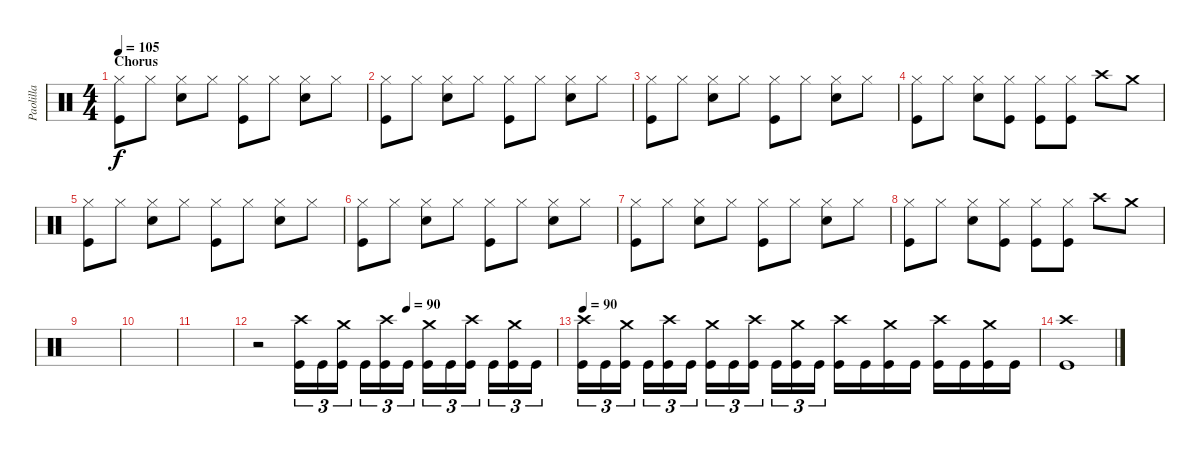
\track ("Paolilla" "Paolilla") {instrument percussion}
\staff {score}
\articulation defaults
\ts (4 4)
\section ("" "Chorus")
\tempo 105
\clef neutral
\ks c
("Hi-Hat (closed)" "Kick (hit)").8{dy f} "Hi-Hat (closed)".8 ("Hi-Hat (closed)" "Snare (hit) 2").8 "Hi-Hat (closed)".8 ("Hi-Hat (closed)" "Kick (hit)").8 "Hi-Hat (closed)".8 ("Hi-Hat (closed)" "Snare (hit) 2").8 "Hi-Hat (closed)".8 |
("Hi-Hat (closed)" "Kick (hit)").8 "Hi-Hat (closed)".8 ("Hi-Hat (closed)" "Snare (hit) 2").8 "Hi-Hat (closed)".8 ("Hi-Hat (closed)" "Kick (hit)").8 "Hi-Hat (closed)".8 ("Hi-Hat (closed)" "Snare (hit) 2").8 "Hi-Hat (closed)".8 |
("Hi-Hat (closed)" "Kick (hit)").8 "Hi-Hat (closed)".8 ("Hi-Hat (closed)" "Snare (hit) 2").8 "Hi-Hat (closed)".8 ("Hi-Hat (closed)" "Kick (hit)").8 "Hi-Hat (closed)".8 ("Hi-Hat (closed)" "Snare (hit) 2").8 "Hi-Hat (closed)".8 |
("Hi-Hat (closed)" "Kick (hit)").8 "Hi-Hat (closed)".8 ("Hi-Hat (closed)" "Snare (hit) 2").8 ("Hi-Hat (closed)" "Kick (hit)").8 ("Hi-Hat (closed)" "Kick (hit)").8 ("Hi-Hat (closed)" "Kick (hit)").8 "Crash high (hit)".8 "Crash medium (hit)".8 |
("Hi-Hat (closed)" "Kick (hit)").8 "Hi-Hat (closed)".8 ("Hi-Hat (closed)" "Snare (hit) 2").8 "Hi-Hat (closed)".8 ("Hi-Hat (closed)" "Kick (hit)").8 "Hi-Hat (closed)".8 ("Hi-Hat (closed)" "Snare (hit) 2").8 "Hi-Hat (closed)".8 |
("Hi-Hat (closed)" "Kick (hit)").8 "Hi-Hat (closed)".8 ("Hi-Hat (closed)" "Snare (hit) 2").8 "Hi-Hat (closed)".8 ("Hi-Hat (closed)" "Kick (hit)").8 "Hi-Hat (closed)".8 ("Hi-Hat (closed)" "Snare (hit) 2").8 "Hi-Hat (closed)".8 |
("Hi-Hat (closed)" "Kick (hit)").8 "Hi-Hat (closed)".8 ("Hi-Hat (closed)" "Snare (hit) 2").8 "Hi-Hat (closed)".8 ("Hi-Hat (closed)" "Kick (hit)").8 "Hi-Hat (closed)".8 ("Hi-Hat (closed)" "Snare (hit) 2").8 "Hi-Hat (closed)".8 |
("Hi-Hat (closed)" "Kick (hit)").8 "Hi-Hat (closed)".8 ("Hi-Hat (closed)" "Snare (hit) 2").8 ("Hi-Hat (closed)" "Kick (hit)").8 ("Hi-Hat (closed)" "Kick (hit)").8 ("Hi-Hat (closed)" "Kick (hit)").8 "Crash high (hit)".8 "Crash medium (hit)".8 |
|
|
|
\tempo (90 0.5)
r.2 ("Crash high (hit)" "Kick (hit)").16{tu (3 2)} "Kick (hit)".16{tu (3 2)} ("Crash medium (hit)" "Kick (hit)").16{tu (3 2)} "Kick (hit)".16{tu (3 2)} ("Crash high (hit)" "Kick (hit)").16{tu (3 2)} "Kick (hit)".16{tu (3 2)} ("Crash medium (hit)" "Kick (hit)").16{tu (3 2)} "Kick (hit)".16{tu (3 2)} ("Crash high (hit)" "Kick (hit)").16{tu (3 2)} "Kick (hit)".16{tu (3 2)} ("Crash medium (hit)" "Kick (hit)").16{tu (3 2)} "Kick (hit)".16{tu (3 2)} |
\tempo 90
("Crash high (hit)" "Kick (hit)").16{tu (3 2)} "Kick (hit)".16{tu (3 2)} ("Crash medium (hit)" "Kick (hit)").16{tu (3 2)} "Kick (hit)".16{tu (3 2)} ("Crash high (hit)" "Kick (hit)").16{tu (3 2)} "Kick (hit)".16{tu (3 2)} ("Crash medium (hit)" "Kick (hit)").16{tu (3 2)} "Kick (hit)".16{tu (3 2)} ("Crash high (hit)" "Kick (hit)").16{tu (3 2)} "Kick (hit)".16{tu (3 2)} ("Crash medium (hit)" "Kick (hit)").16{tu (3 2)} "Kick (hit)".16{tu (3 2)} ("Crash high (hit)" "Kick (hit)").16 "Kick (hit)".16 ("Crash medium (hit)" "Kick (hit)").16 "Kick (hit)".16 ("Crash high (hit)" "Kick (hit)").16 "Kick (hit)".16 ("Crash medium (hit)" "Kick (hit)").16 "Kick (hit)".16 |
("Crash high (hit)" "Kick (hit)").1
